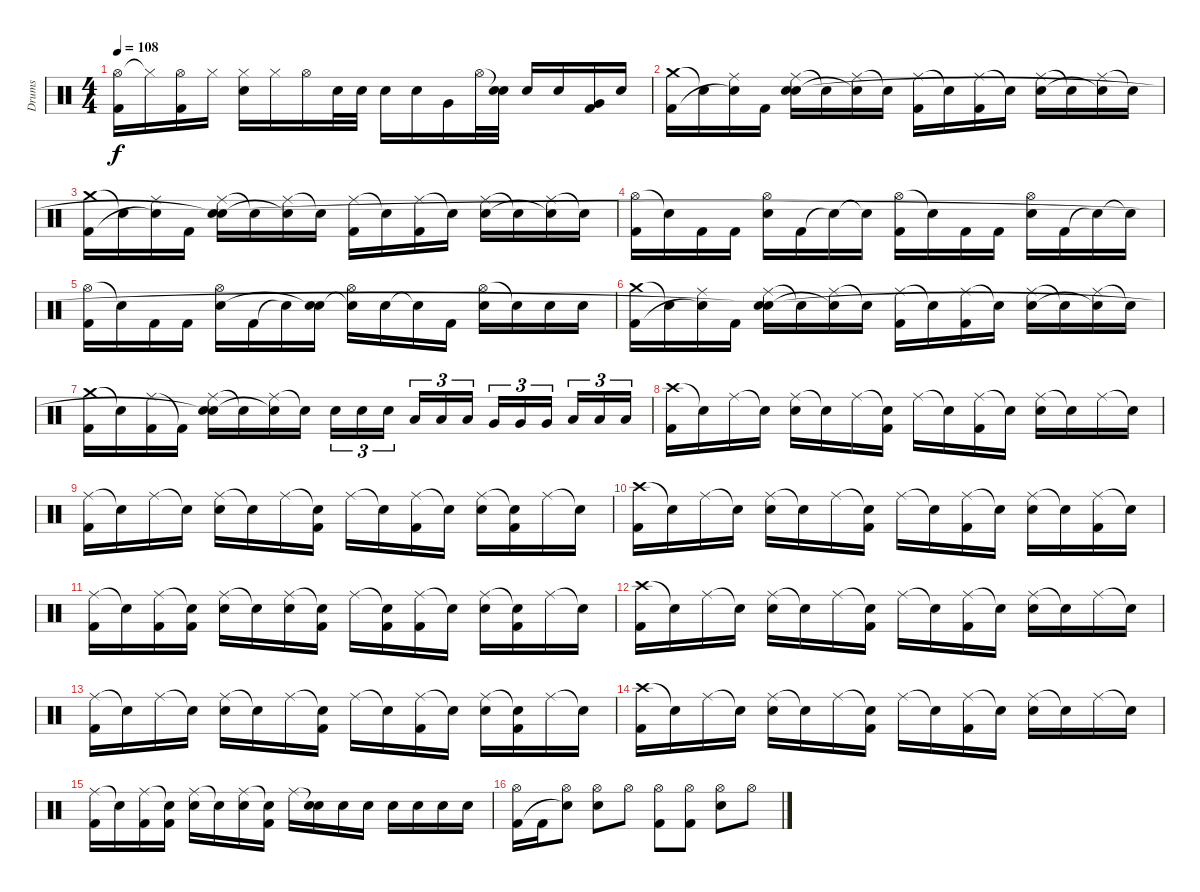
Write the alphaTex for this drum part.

\track ("Drums" "Drums") {instrument percussion}
\staff {score}
\articulation defaults
\ts (4 4)
\tempo 108
\clef neutral
\ks c
("Hi-Hat (open)" "Kick (hit) 2").16{dy f} "Hi-Hat (closed)"{t}.16 ("Hi-Hat (open)" "Kick (hit) 2").16 "Hi-Hat (closed)".16 ("Hi-Hat (closed)" "Electric Snare (hit)").16 "Hi-Hat (closed)".16 "Hi-Hat (open)".16 "Electric Snare (hit)".32 "Electric Snare (hit)".32 "Electric Snare (hit)".16 "Electric Snare (hit)".16 "Very Low Tom (hit)".16 "Hi-Hat (open)".32 ("Snare (hit)"{t} "Electric Snare (hit)").32 "Electric Snare (hit)".16 "Electric Snare (hit)".16 ("Very Low Tom (hit)" "Kick (hit) 2").16 "Electric Snare (hit)".16 |
("Crash medium (hit)" "Kick (hit) 2").16 "Snare (hit)"{t}.16 ("Ride (middle)" "Snare (hit)"{t}).16 "Kick (hit) 2".16 ("Ride (middle)" "Electric Snare (hit)" "Snare (hit)").16 "Snare (hit)"{t}.16 ("Ride (middle)" "Snare (hit)"{t}).16 "Snare (hit)"{t}.16 ("Ride (middle)" "Kick (hit) 2").16 "Snare (hit)"{t}.16 ("Ride (middle)" "Kick (hit) 2").16 "Snare (hit)"{t}.16 ("Ride (middle)" "Electric Snare (hit)").16 "Snare (hit)"{t}.16 ("Ride (middle)" "Snare (hit)"{t}).16 "Snare (hit)"{t}.16 |
("Crash medium (hit)" "Kick (hit) 2").16 "Snare (hit)"{t}.16 ("Ride (middle)" "Snare (hit)"{t}).16 "Kick (hit) 2".16 ("Ride (middle)" "Electric Snare (hit)" "Snare (hit)"{t}).16 "Snare (hit)"{t}.16 ("Ride (middle)" "Snare (hit)"{t}).16 "Snare (hit)"{t}.16 ("Ride (middle)" "Kick (hit) 2").16 "Snare (hit)"{t}.16 ("Ride (middle)" "Kick (hit) 2").16 "Snare (hit)"{t}.16 ("Ride (middle)" "Electric Snare (hit)").16 "Snare (hit)"{t}.16 ("Ride (middle)" "Snare (hit)"{t}).16 "Snare (hit)"{t}.16 |
("Hi-Hat (open)" "Kick (hit) 2").16 "Snare (hit)"{t}.16 "Kick (hit) 2".16 "Kick (hit) 2".16 ("Hi-Hat (open)" "Electric Snare (hit)").16 "Kick (hit) 2".16 "Snare (hit)"{t}.16 "Snare (hit)"{t}.16 ("Hi-Hat (open)" "Kick (hit) 2").16 "Snare (hit)"{t}.16 "Kick (hit) 2".16 "Kick (hit) 2".16 ("Hi-Hat (open)" "Electric Snare (hit)").16 "Kick (hit) 2".16 "Snare (hit)"{t}.16 "Snare (hit)"{t}.16 |
("Hi-Hat (open)" "Kick (hit) 2").16 "Snare (hit)"{t}.16 "Kick (hit) 2".16 "Kick (hit) 2".16 ("Hi-Hat (open)" "Electric Snare (hit)").16 "Kick (hit) 2".16 "Snare (hit)"{t}.16 ("Electric Snare (hit)" "Snare (hit)"{t}).16 ("Hi-Hat (open)" "Electric Snare (hit)"{t}).16 "Electric Snare (hit)".16 "Snare (hit)"{t}.16 "Kick (hit) 2".16 ("Hi-Hat (open)" "Electric Snare (hit)").16 "Electric Snare (hit)"{t}.16 "Electric Snare (hit)".16 "Electric Snare (hit)".16 |
("Crash medium (hit)" "Kick (hit) 2").16 "Snare (hit)"{t}.16 ("Ride (middle)" "Snare (hit)"{t}).16 "Kick (hit) 2".16 ("Ride (middle)" "Electric Snare (hit)" "Snare (hit)"{t}).16 "Snare (hit)"{t}.16 ("Ride (middle)" "Snare (hit)"{t}).16 "Snare (hit)"{t}.16 ("Ride (middle)" "Kick (hit) 2").16 "Snare (hit)"{t}.16 ("Ride (middle)" "Kick (hit) 2").16 "Snare (hit)"{t}.16 ("Ride (middle)" "Electric Snare (hit)").16 "Snare (hit)"{t}.16 ("Ride (middle)" "Snare (hit)"{t}).16 "Snare (hit)"{t}.16 |
("Crash medium (hit)" "Kick (hit) 2").16 "Snare (hit)"{t}.16 ("Ride (middle)" "Kick (hit) 2").16 "Kick (hit) 2"{t}.16 ("Ride (middle)" "Electric Snare (hit)" "Snare (hit)"{t}).16 "Snare (hit)"{t}.16 ("Ride (middle)" "Snare (hit)"{t}).16 "Snare (hit)"{t}.16 "Electric Snare (hit)".16{tu (3 2)} "Electric Snare (hit)".16{tu (3 2)} "Electric Snare (hit)".16{tu (3 2)} "Low Tom (hit)".16{tu (3 2)} "Low Tom (hit)".16{tu (3 2)} "Low Tom (hit)".16{tu (3 2)} "Very Low Tom (hit)".16{tu (3 2)} "Very Low Tom (hit)".16{tu (3 2)} "Very Low Tom (hit)".16{tu (3 2)} "Low Floor Tom (hit)".16{tu (3 2)} "Low Floor Tom (hit)".16{tu (3 2)} "Low Floor Tom (hit)".16{tu (3 2)} |
("Crash high (hit)" "Kick (hit) 2").16 "Snare (hit)"{t}.16 "Ride (middle)".16 "Snare (hit)"{t}.16 ("Ride (middle)" "Electric Snare (hit)").16 "Snare (hit)"{t}.16 "Ride (middle)".16 ("Snare (hit)"{t} "Kick (hit) 2").16 "Ride (middle)".16 "Snare (hit)"{t}.16 ("Ride (middle)" "Kick (hit) 2").16 "Snare (hit)"{t}.16 ("Ride (middle)" "Electric Snare (hit)").16 "Snare (hit)"{t}.16 "Ride (middle)".16 "Snare (hit)"{t}.16 |
("Ride (middle)" "Kick (hit) 2").16 "Snare (hit)"{t}.16 "Ride (middle)".16 "Snare (hit)"{t}.16 ("Ride (middle)" "Electric Snare (hit)").16 "Snare (hit)"{t}.16 "Ride (middle)".16 ("Snare (hit)"{t} "Kick (hit) 2").16 "Ride (middle)".16 "Snare (hit)"{t}.16 ("Ride (middle)" "Kick (hit) 2").16 "Snare (hit)"{t}.16 ("Ride (middle)" "Electric Snare (hit)").16 ("Snare (hit)"{t} "Kick (hit) 2").16 "Ride (middle)".16 "Snare (hit)"{t}.16 |
("Crash high (hit)" "Kick (hit) 2").16 "Snare (hit)"{t}.16 "Ride (middle)".16 "Snare (hit)"{t}.16 ("Ride (middle)" "Electric Snare (hit)").16 "Snare (hit)"{t}.16 "Ride (middle)".16 ("Snare (hit)"{t} "Kick (hit) 2").16 "Ride (middle)".16 "Snare (hit)"{t}.16 ("Ride (middle)" "Kick (hit) 2").16 "Snare (hit)"{t}.16 ("Ride (middle)" "Electric Snare (hit)").16 "Snare (hit)"{t}.16 ("Ride (middle)" "Kick (hit) 2").16 "Snare (hit)"{t}.16 |
("Ride (middle)" "Kick (hit) 2").16 "Snare (hit)"{t}.16 ("Ride (middle)" "Kick (hit) 2").16 ("Snare (hit)"{t} "Kick (hit) 2").16 ("Ride (middle)" "Electric Snare (hit)").16 "Snare (hit)"{t}.16 ("Ride (middle)" "Electric Snare (hit)").16 ("Snare (hit)"{t} "Kick (hit) 2").16 "Ride (middle)".16 ("Snare (hit)"{t} "Kick (hit) 2").16 ("Ride (middle)" "Kick (hit) 2").16 "Snare (hit)"{t}.16 ("Ride (middle)" "Electric Snare (hit)").16 ("Snare (hit)"{t} "Kick (hit) 2").16 "Ride (middle)".16 "Snare (hit)"{t}.16 |
("Crash high (hit)" "Kick (hit) 2").16 "Snare (hit)"{t}.16 "Ride (middle)".16 "Snare (hit)"{t}.16 ("Ride (middle)" "Electric Snare (hit)").16 "Snare (hit)"{t}.16 "Ride (middle)".16 ("Snare (hit)"{t} "Kick (hit) 2").16 "Ride (middle)".16 "Snare (hit)"{t}.16 ("Ride (middle)" "Kick (hit) 2").16 "Snare (hit)"{t}.16 ("Ride (middle)" "Electric Snare (hit)").16 "Snare (hit)"{t}.16 "Ride (middle)".16 "Snare (hit)"{t}.16 |
("Ride (middle)" "Kick (hit) 2").16 "Snare (hit)"{t}.16 "Ride (middle)".16 "Snare (hit)"{t}.16 ("Ride (middle)" "Electric Snare (hit)").16 "Snare (hit)"{t}.16 "Ride (middle)".16 ("Snare (hit)"{t} "Kick (hit) 2").16 "Ride (middle)".16 "Snare (hit)"{t}.16 ("Ride (middle)" "Kick (hit) 2").16 "Snare (hit)"{t}.16 ("Ride (middle)" "Electric Snare (hit)").16 ("Snare (hit)"{t} "Kick (hit) 2").16 "Ride (middle)".16 "Snare (hit)"{t}.16 |
("Crash high (hit)" "Kick (hit) 2").16 "Snare (hit)"{t}.16 "Ride (middle)".16 "Snare (hit)"{t}.16 ("Ride (middle)" "Electric Snare (hit)").16 "Snare (hit)"{t}.16 "Ride (middle)".16 ("Snare (hit)"{t} "Kick (hit) 2").16 "Ride (middle)".16 "Snare (hit)"{t}.16 ("Ride (middle)" "Kick (hit) 2").16 "Snare (hit)"{t}.16 ("Ride (middle)" "Electric Snare (hit)").16 "Snare (hit)"{t}.16 "Ride (middle)".16 "Snare (hit)"{t}.16 |
("Ride (middle)" "Kick (hit) 2").16 "Snare (hit)"{t}.16 ("Ride (middle)" "Kick (hit) 2").16 ("Snare (hit)"{t} "Kick (hit) 2").16 ("Ride (middle)" "Electric Snare (hit)").16 "Snare (hit)"{t}.16 ("Ride (middle)" "Electric Snare (hit)").16 ("Snare (hit)"{t} "Kick (hit) 2").16 "Ride (middle)".16 ("Snare (hit)"{t} "Electric Snare (hit)").16 "Electric Snare (hit)".16 "Electric Snare (hit)".16 "Electric Snare (hit)".16 "Electric Snare (hit)".16 "Electric Snare (hit)".16 "Electric Snare (hit)".16 |
("Hi-Hat (open)" "Kick (hit) 2").16 "Kick (hit) 2".16 ("Hi-Hat (open)" "Snare (hit)"{t}).8 ("Hi-Hat (open)" "Electric Snare (hit)").8 "Hi-Hat (open)".8 ("Hi-Hat (open)" "Kick (hit) 2").8 ("Hi-Hat (open)" "Kick (hit) 2").8 ("Hi-Hat (open)" "Electric Snare (hit)").8 "Hi-Hat (open)".8
